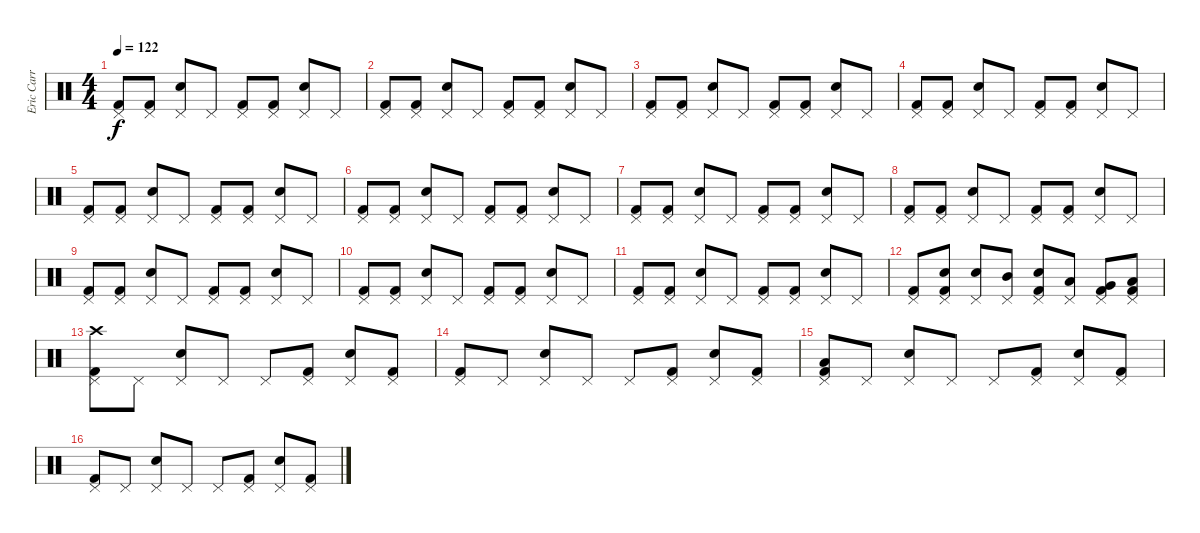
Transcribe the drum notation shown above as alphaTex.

\track ("Eric Carr" "Eric Carr") {instrument percussion}
\staff {score}
\articulation defaults
\ts (4 4)
\tempo 122
\clef neutral
\ks c
("Kick (hit) 2" "Pedal Hi-Hat (hit)").8{dy f} ("Kick (hit) 2" "Pedal Hi-Hat (hit)").8 ("Pedal Hi-Hat (hit)" "Snare (hit) 2").8 "Pedal Hi-Hat (hit)".8 ("Kick (hit) 2" "Pedal Hi-Hat (hit)").8 ("Kick (hit) 2" "Pedal Hi-Hat (hit)").8 ("Pedal Hi-Hat (hit)" "Snare (hit) 2").8 "Pedal Hi-Hat (hit)".8 |
("Kick (hit) 2" "Pedal Hi-Hat (hit)").8 ("Kick (hit) 2" "Pedal Hi-Hat (hit)").8 ("Pedal Hi-Hat (hit)" "Snare (hit) 2").8 "Pedal Hi-Hat (hit)".8 ("Kick (hit) 2" "Pedal Hi-Hat (hit)").8 ("Kick (hit) 2" "Pedal Hi-Hat (hit)").8 ("Pedal Hi-Hat (hit)" "Snare (hit) 2").8 "Pedal Hi-Hat (hit)".8 |
("Kick (hit) 2" "Pedal Hi-Hat (hit)").8 ("Kick (hit) 2" "Pedal Hi-Hat (hit)").8 ("Pedal Hi-Hat (hit)" "Snare (hit) 2").8 "Pedal Hi-Hat (hit)".8 ("Kick (hit) 2" "Pedal Hi-Hat (hit)").8 ("Kick (hit) 2" "Pedal Hi-Hat (hit)").8 ("Pedal Hi-Hat (hit)" "Snare (hit) 2").8 "Pedal Hi-Hat (hit)".8 |
("Kick (hit) 2" "Pedal Hi-Hat (hit)").8 ("Kick (hit) 2" "Pedal Hi-Hat (hit)").8 ("Pedal Hi-Hat (hit)" "Snare (hit) 2").8 "Pedal Hi-Hat (hit)".8 ("Kick (hit) 2" "Pedal Hi-Hat (hit)").8 ("Kick (hit) 2" "Pedal Hi-Hat (hit)").8 ("Pedal Hi-Hat (hit)" "Snare (hit) 2").8 "Pedal Hi-Hat (hit)".8 |
("Kick (hit) 2" "Pedal Hi-Hat (hit)").8 ("Kick (hit) 2" "Pedal Hi-Hat (hit)").8 ("Pedal Hi-Hat (hit)" "Snare (hit) 2").8 "Pedal Hi-Hat (hit)".8 ("Kick (hit) 2" "Pedal Hi-Hat (hit)").8 ("Kick (hit) 2" "Pedal Hi-Hat (hit)").8 ("Pedal Hi-Hat (hit)" "Snare (hit) 2").8 "Pedal Hi-Hat (hit)".8 |
("Kick (hit) 2" "Pedal Hi-Hat (hit)").8 ("Kick (hit) 2" "Pedal Hi-Hat (hit)").8 ("Pedal Hi-Hat (hit)" "Snare (hit) 2").8 "Pedal Hi-Hat (hit)".8 ("Kick (hit) 2" "Pedal Hi-Hat (hit)").8 ("Kick (hit) 2" "Pedal Hi-Hat (hit)").8 ("Pedal Hi-Hat (hit)" "Snare (hit) 2").8 "Pedal Hi-Hat (hit)".8 |
("Kick (hit) 2" "Pedal Hi-Hat (hit)").8 ("Kick (hit) 2" "Pedal Hi-Hat (hit)").8 ("Pedal Hi-Hat (hit)" "Snare (hit) 2").8 "Pedal Hi-Hat (hit)".8 ("Kick (hit) 2" "Pedal Hi-Hat (hit)").8 ("Kick (hit) 2" "Pedal Hi-Hat (hit)").8 ("Pedal Hi-Hat (hit)" "Snare (hit) 2").8 "Pedal Hi-Hat (hit)".8 |
("Kick (hit) 2" "Pedal Hi-Hat (hit)").8 ("Kick (hit) 2" "Pedal Hi-Hat (hit)").8 ("Pedal Hi-Hat (hit)" "Snare (hit) 2").8 "Pedal Hi-Hat (hit)".8 ("Kick (hit) 2" "Pedal Hi-Hat (hit)").8 ("Kick (hit) 2" "Pedal Hi-Hat (hit)").8 ("Pedal Hi-Hat (hit)" "Snare (hit) 2").8 "Pedal Hi-Hat (hit)".8 |
("Kick (hit) 2" "Pedal Hi-Hat (hit)").8 ("Kick (hit) 2" "Pedal Hi-Hat (hit)").8 ("Pedal Hi-Hat (hit)" "Snare (hit) 2").8 "Pedal Hi-Hat (hit)".8 ("Kick (hit) 2" "Pedal Hi-Hat (hit)").8 ("Kick (hit) 2" "Pedal Hi-Hat (hit)").8 ("Pedal Hi-Hat (hit)" "Snare (hit) 2").8 "Pedal Hi-Hat (hit)".8 |
("Kick (hit) 2" "Pedal Hi-Hat (hit)").8 ("Kick (hit) 2" "Pedal Hi-Hat (hit)").8 ("Pedal Hi-Hat (hit)" "Snare (hit) 2").8 "Pedal Hi-Hat (hit)".8 ("Kick (hit) 2" "Pedal Hi-Hat (hit)").8 ("Kick (hit) 2" "Pedal Hi-Hat (hit)").8 ("Pedal Hi-Hat (hit)" "Snare (hit) 2").8 "Pedal Hi-Hat (hit)".8 |
("Kick (hit) 2" "Pedal Hi-Hat (hit)").8 ("Kick (hit) 2" "Pedal Hi-Hat (hit)").8 ("Pedal Hi-Hat (hit)" "Snare (hit) 2").8 "Pedal Hi-Hat (hit)".8 ("Kick (hit) 2" "Pedal Hi-Hat (hit)").8 ("Kick (hit) 2" "Pedal Hi-Hat (hit)").8 ("Pedal Hi-Hat (hit)" "Snare (hit) 2").8 "Pedal Hi-Hat (hit)".8 |
("Kick (hit) 2" "Pedal Hi-Hat (hit)").8 ("Kick (hit) 2" "Pedal Hi-Hat (hit)" "Snare (hit) 2").8 ("Pedal Hi-Hat (hit)" "Snare (hit) 2").8 ("Pedal Hi-Hat (hit)" "Mid Tom (hit)").8 ("Kick (hit) 2" "Pedal Hi-Hat (hit)" "Snare (hit) 2").8 ("Pedal Hi-Hat (hit)" "Low Tom (hit)").8 ("Kick (hit) 2" "Pedal Hi-Hat (hit)" "Very Low Tom (hit)").8 ("Kick (hit) 2" "Pedal Hi-Hat (hit)" "Low Floor Tom (hit)").8 |
("Kick (hit) 2" "Pedal Hi-Hat (hit)" "Crash high (hit)").8 "Pedal Hi-Hat (hit)".8 ("Pedal Hi-Hat (hit)" "Snare (hit) 2").8 "Pedal Hi-Hat (hit)".8 "Pedal Hi-Hat (hit)".8 ("Kick (hit) 2" "Pedal Hi-Hat (hit)").8 ("Pedal Hi-Hat (hit)" "Snare (hit) 2").8 ("Kick (hit) 2" "Pedal Hi-Hat (hit)").8 |
("Kick (hit) 2" "Pedal Hi-Hat (hit)").8 "Pedal Hi-Hat (hit)".8 ("Pedal Hi-Hat (hit)" "Snare (hit) 2").8 "Pedal Hi-Hat (hit)".8 "Pedal Hi-Hat (hit)".8 ("Kick (hit) 2" "Pedal Hi-Hat (hit)").8 ("Pedal Hi-Hat (hit)" "Snare (hit) 2").8 ("Kick (hit) 2" "Pedal Hi-Hat (hit)").8 |
("Kick (hit) 2" "Pedal Hi-Hat (hit)" "Low Tom (hit)").8 "Pedal Hi-Hat (hit)".8 ("Pedal Hi-Hat (hit)" "Snare (hit) 2").8 "Pedal Hi-Hat (hit)".8 "Pedal Hi-Hat (hit)".8 ("Kick (hit) 2" "Pedal Hi-Hat (hit)").8 ("Pedal Hi-Hat (hit)" "Snare (hit) 2").8 ("Kick (hit) 2" "Pedal Hi-Hat (hit)").8 |
("Kick (hit) 2" "Pedal Hi-Hat (hit)").8 "Pedal Hi-Hat (hit)".8 ("Pedal Hi-Hat (hit)" "Snare (hit) 2").8 "Pedal Hi-Hat (hit)".8 "Pedal Hi-Hat (hit)".8 ("Kick (hit) 2" "Pedal Hi-Hat (hit)").8 ("Pedal Hi-Hat (hit)" "Snare (hit) 2").8 ("Kick (hit) 2" "Pedal Hi-Hat (hit)").8
